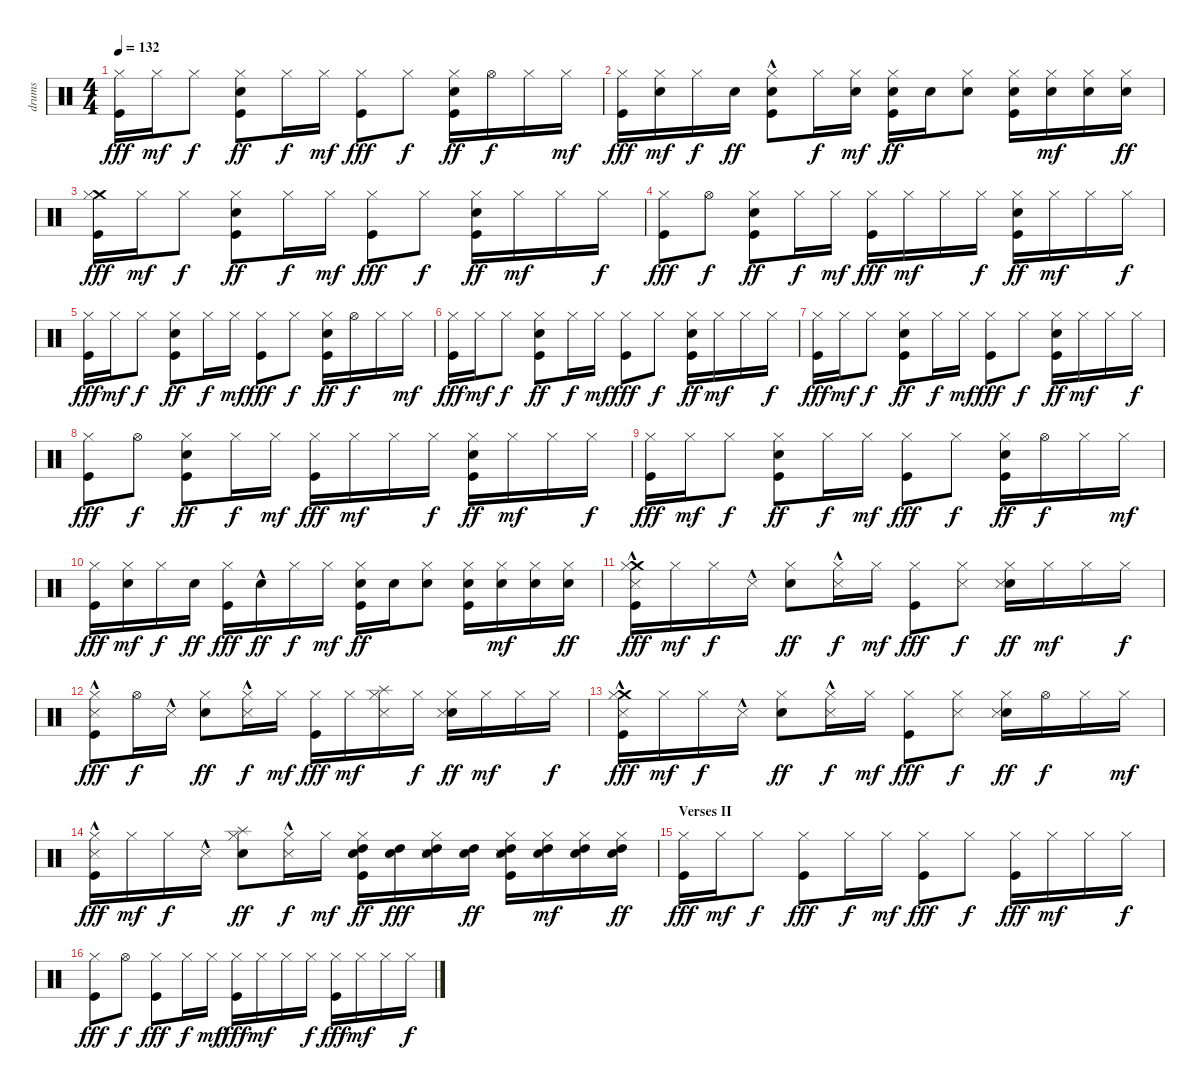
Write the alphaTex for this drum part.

\track ("drums" "drums") {instrument percussion}
\staff {score}
\articulation defaults
\ts (4 4)
\tempo 132
\clef neutral
\ks c
("Kick (hit)" "Hi-Hat (closed)").16{dy fff} "Hi-Hat (closed)".16{dy mf} "Hi-Hat (closed)".8{dy f} ("Kick (hit)" "Electric Snare (hit)" "Hi-Hat (closed)").8{dy ff} "Hi-Hat (closed)".16{dy f} "Hi-Hat (closed)".16{dy mf} ("Kick (hit)" "Hi-Hat (closed)").8{dy fff} "Hi-Hat (closed)".8{dy f} ("Kick (hit)" "Electric Snare (hit)" "Hi-Hat (closed)").16{dy ff} "Hi-Hat (open)".16{dy f} "Hi-Hat (closed)".16 "Hi-Hat (closed)".16{dy mf} |
("Kick (hit)" "Hi-Hat (closed)").16{dy fff} ("Electric Snare (hit)" "Hi-Hat (closed)").16{dy mf} "Hi-Hat (closed)".16{dy f} "Electric Snare (hit)".16{dy ff} ("Kick (hit)"{hac} "Electric Snare (hit)"{hac} "Hi-Hat (closed)").8 "Hi-Hat (closed)".16{dy f} ("Electric Snare (hit)" "Hi-Hat (closed)").16{dy mf} ("Kick (hit)" "Electric Snare (hit)" "Hi-Hat (closed)").16{dy ff} "Electric Snare (hit)".16 ("Electric Snare (hit)" "Hi-Hat (closed)").8 ("Kick (hit)" "Electric Snare (hit)" "Hi-Hat (closed)").16 ("Electric Snare (hit)" "Hi-Hat (closed)").16{dy mf} ("Electric Snare (hit)" "Hi-Hat (closed)").16 ("Electric Snare (hit)" "Hi-Hat (closed)").16{dy ff} |
("Kick (hit)" "Crash medium (hit)" "Hi-Hat (closed)").16{dy fff} "Hi-Hat (closed)".16{dy mf} "Hi-Hat (closed)".8{dy f} ("Kick (hit)" "Electric Snare (hit)" "Hi-Hat (closed)").8{dy ff} "Hi-Hat (closed)".16{dy f} "Hi-Hat (closed)".16{dy mf} ("Kick (hit)" "Hi-Hat (closed)").8{dy fff} "Hi-Hat (closed)".8{dy f} ("Kick (hit)" "Electric Snare (hit)" "Hi-Hat (closed)").16{dy ff} "Hi-Hat (closed)".16{dy mf} "Hi-Hat (closed)".16 "Hi-Hat (closed)".16{dy f} |
("Kick (hit)" "Hi-Hat (closed)").8{dy fff} "Hi-Hat (open)".8{dy f} ("Kick (hit)" "Electric Snare (hit)" "Hi-Hat (closed)").8{dy ff} "Hi-Hat (closed)".16{dy f} "Hi-Hat (closed)".16{dy mf} ("Kick (hit)" "Hi-Hat (closed)").16{dy fff} "Hi-Hat (closed)".16{dy mf} "Hi-Hat (closed)".16 "Hi-Hat (closed)".16{dy f} ("Kick (hit)" "Electric Snare (hit)" "Hi-Hat (closed)").16{dy ff} "Hi-Hat (closed)".16{dy mf} "Hi-Hat (closed)".16 "Hi-Hat (closed)".16{dy f} |
("Kick (hit)" "Hi-Hat (closed)").16{dy fff} "Hi-Hat (closed)".16{dy mf} "Hi-Hat (closed)".8{dy f} ("Kick (hit)" "Electric Snare (hit)" "Hi-Hat (closed)").8{dy ff} "Hi-Hat (closed)".16{dy f} "Hi-Hat (closed)".16{dy mf} ("Kick (hit)" "Hi-Hat (closed)").8{dy fff} "Hi-Hat (closed)".8{dy f} ("Kick (hit)" "Electric Snare (hit)" "Hi-Hat (closed)").16{dy ff} "Hi-Hat (open)".16{dy f} "Hi-Hat (closed)".16 "Hi-Hat (closed)".16{dy mf} |
("Kick (hit)" "Hi-Hat (closed)").16{dy fff} "Hi-Hat (closed)".16{dy mf} "Hi-Hat (closed)".8{dy f} ("Kick (hit)" "Electric Snare (hit)" "Hi-Hat (closed)").8{dy ff} "Hi-Hat (closed)".16{dy f} "Hi-Hat (closed)".16{dy mf} ("Kick (hit)" "Hi-Hat (closed)").8{dy fff} "Hi-Hat (closed)".8{dy f} ("Kick (hit)" "Electric Snare (hit)" "Hi-Hat (closed)").16{dy ff} "Hi-Hat (closed)".16{dy mf} "Hi-Hat (closed)".16 "Hi-Hat (closed)".16{dy f} |
("Kick (hit)" "Hi-Hat (closed)").16{dy fff} "Hi-Hat (closed)".16{dy mf} "Hi-Hat (closed)".8{dy f} ("Kick (hit)" "Electric Snare (hit)" "Hi-Hat (closed)").8{dy ff} "Hi-Hat (closed)".16{dy f} "Hi-Hat (closed)".16{dy mf} ("Kick (hit)" "Hi-Hat (closed)").8{dy fff} "Hi-Hat (closed)".8{dy f} ("Kick (hit)" "Electric Snare (hit)" "Hi-Hat (closed)").16{dy ff} "Hi-Hat (closed)".16{dy mf} "Hi-Hat (closed)".16 "Hi-Hat (closed)".16{dy f} |
("Kick (hit)" "Hi-Hat (closed)").8{dy fff} "Hi-Hat (open)".8{dy f} ("Kick (hit)" "Electric Snare (hit)" "Hi-Hat (closed)").8{dy ff} "Hi-Hat (closed)".16{dy f} "Hi-Hat (closed)".16{dy mf} ("Kick (hit)" "Hi-Hat (closed)").16{dy fff} "Hi-Hat (closed)".16{dy mf} "Hi-Hat (closed)".16 "Hi-Hat (closed)".16{dy f} ("Kick (hit)" "Electric Snare (hit)" "Hi-Hat (closed)").16{dy ff} "Hi-Hat (closed)".16{dy mf} "Hi-Hat (closed)".16 "Hi-Hat (closed)".16{dy f} |
("Kick (hit)" "Hi-Hat (closed)").16{dy fff} "Hi-Hat (closed)".16{dy mf} "Hi-Hat (closed)".8{dy f} ("Kick (hit)" "Electric Snare (hit)" "Hi-Hat (closed)").8{dy ff} "Hi-Hat (closed)".16{dy f} "Hi-Hat (closed)".16{dy mf} ("Kick (hit)" "Hi-Hat (closed)").8{dy fff} "Hi-Hat (closed)".8{dy f} ("Kick (hit)" "Electric Snare (hit)" "Hi-Hat (closed)").16{dy ff} "Hi-Hat (open)".16{dy f} "Hi-Hat (closed)".16 "Hi-Hat (closed)".16{dy mf} |
("Kick (hit)" "Hi-Hat (closed)").16{dy fff} ("Electric Snare (hit)" "Hi-Hat (closed)").16{dy mf} "Hi-Hat (closed)".16{dy f} "Electric Snare (hit)".16{dy ff} ("Kick (hit)" "Hi-Hat (closed)").16{dy fff} "Electric Snare (hit)"{hac}.16{dy ff} "Hi-Hat (closed)".16{dy f} "Hi-Hat (closed)".16{dy mf} ("Kick (hit)" "Electric Snare (hit)" "Hi-Hat (closed)").16{dy ff} "Electric Snare (hit)".16 ("Electric Snare (hit)" "Hi-Hat (closed)").8 ("Kick (hit)" "Electric Snare (hit)" "Hi-Hat (closed)").16 ("Electric Snare (hit)" "Hi-Hat (closed)").16{dy mf} ("Electric Snare (hit)" "Hi-Hat (closed)").16 ("Electric Snare (hit)" "Hi-Hat (closed)").16{dy ff} |
("Kick (hit)" "Crash medium (hit)" "Hi-Hat (closed)" "Snare (side stick) 3"{hac}).16{dy fff} "Hi-Hat (closed)".16{dy mf} "Hi-Hat (closed)".16{dy f} "Snare (side stick) 3"{hac}.16 ("Electric Snare (hit)" "Hi-Hat (closed)").8{dy ff} ("Hi-Hat (closed)" "Snare (side stick) 3"{hac}).16{dy f} "Hi-Hat (closed)".16{dy mf} ("Kick (hit)" "Hi-Hat (closed)").8{dy fff} ("Hi-Hat (closed)" "Snare (side stick) 3").8{dy f} ("Electric Snare (hit)" "Hi-Hat (closed)" "Snare (side stick) 3").16{dy ff} "Hi-Hat (closed)".16{dy mf} "Hi-Hat (closed)".16 "Hi-Hat (closed)".16{dy f} |
("Kick (hit)" "Hi-Hat (closed)" "Snare (side stick) 3"{hac}).8{dy fff} "Hi-Hat (open)".16{dy f} "Snare (side stick) 3"{hac}.16 ("Electric Snare (hit)" "Hi-Hat (closed)").8{dy ff} ("Hi-Hat (closed)" "Snare (side stick) 3"{hac}).16{dy f} "Hi-Hat (closed)".16{dy mf} ("Kick (hit)" "Hi-Hat (closed)").16{dy fff} "Hi-Hat (closed)".16{dy mf} ("Splash (hit)" "Hi-Hat (closed)" "Snare (side stick) 3").16 "Hi-Hat (closed)".16{dy f} ("Electric Snare (hit)" "Hi-Hat (closed)" "Snare (side stick) 3").16{dy ff} "Hi-Hat (closed)".16{dy mf} "Hi-Hat (closed)".16 "Hi-Hat (closed)".16{dy f} |
("Kick (hit)" "Crash medium (hit)" "Hi-Hat (closed)" "Snare (side stick) 3"{hac}).16{dy fff} "Hi-Hat (closed)".16{dy mf} "Hi-Hat (closed)".16{dy f} "Snare (side stick) 3"{hac}.16 ("Electric Snare (hit)" "Hi-Hat (closed)").8{dy ff} ("Hi-Hat (closed)" "Snare (side stick) 3"{hac}).16{dy f} "Hi-Hat (closed)".16{dy mf} ("Kick (hit)" "Hi-Hat (closed)").8{dy fff} ("Hi-Hat (closed)" "Snare (side stick) 3").8{dy f} ("Electric Snare (hit)" "Hi-Hat (closed)" "Snare (side stick) 3").16{dy ff} "Hi-Hat (open)".16{dy f} "Hi-Hat (closed)".16 "Hi-Hat (closed)".16{dy mf} |
("Kick (hit)" "Hi-Hat (closed)" "Snare (side stick) 3"{hac}).16{dy fff} "Hi-Hat (closed)".16{dy mf} "Hi-Hat (closed)".16{dy f} "Snare (side stick) 3"{hac}.16 ("Electric Snare (hit)" "Splash (hit)" "Hi-Hat (closed)").8{dy ff} ("Hi-Hat (closed)" "Snare (side stick) 3"{hac}).16{dy f} "Hi-Hat (closed)".16{dy mf} ("Kick (hit)" "High Tom (hit)" "Electric Snare (hit)" "Hi-Hat (closed)").16{dy ff} ("High Tom (hit)" "Electric Snare (hit)").16{dy fff} ("High Tom (hit)" "Electric Snare (hit)" "Hi-Hat (closed)" "Snare (side stick) 3").16 ("High Tom (hit)" "Electric Snare (hit)").16{dy ff} ("Kick (hit)" "High Tom (hit)" "Electric Snare (hit)" "Hi-Hat (closed)" "Snare (side stick) 3").16 ("High Tom (hit)" "Electric Snare (hit)" "Hi-Hat (closed)").16{dy mf} ("High Tom (hit)" "Electric Snare (hit)" "Hi-Hat (closed)").16 ("High Tom (hit)" "Electric Snare (hit)" "Hi-Hat (closed)").16{dy ff} |
\section ("" "Verses II")
("Kick (hit)" "Hi-Hat (closed)").16{dy fff} "Hi-Hat (closed)".16{dy mf} "Hi-Hat (closed)".8{dy f} ("Kick (hit)" "Hi-Hat (closed)").8{dy fff} "Hi-Hat (closed)".16{dy f} "Hi-Hat (closed)".16{dy mf} ("Kick (hit)" "Hi-Hat (closed)").8{dy fff} "Hi-Hat (closed)".8{dy f} ("Kick (hit)" "Hi-Hat (closed)").16{dy fff} "Hi-Hat (closed)".16{dy mf} "Hi-Hat (closed)".16 "Hi-Hat (closed)".16{dy f} |
("Kick (hit)" "Hi-Hat (closed)").8{dy fff} "Hi-Hat (open)".8{dy f} ("Kick (hit)" "Hi-Hat (closed)").8{dy fff} "Hi-Hat (closed)".16{dy f} "Hi-Hat (closed)".16{dy mf} ("Kick (hit)" "Hi-Hat (closed)").16{dy fff} "Hi-Hat (closed)".16{dy mf} "Hi-Hat (closed)".16 "Hi-Hat (closed)".16{dy f} ("Kick (hit)" "Hi-Hat (closed)").16{dy fff} "Hi-Hat (closed)".16{dy mf} "Hi-Hat (closed)".16 "Hi-Hat (closed)".16{dy f}
